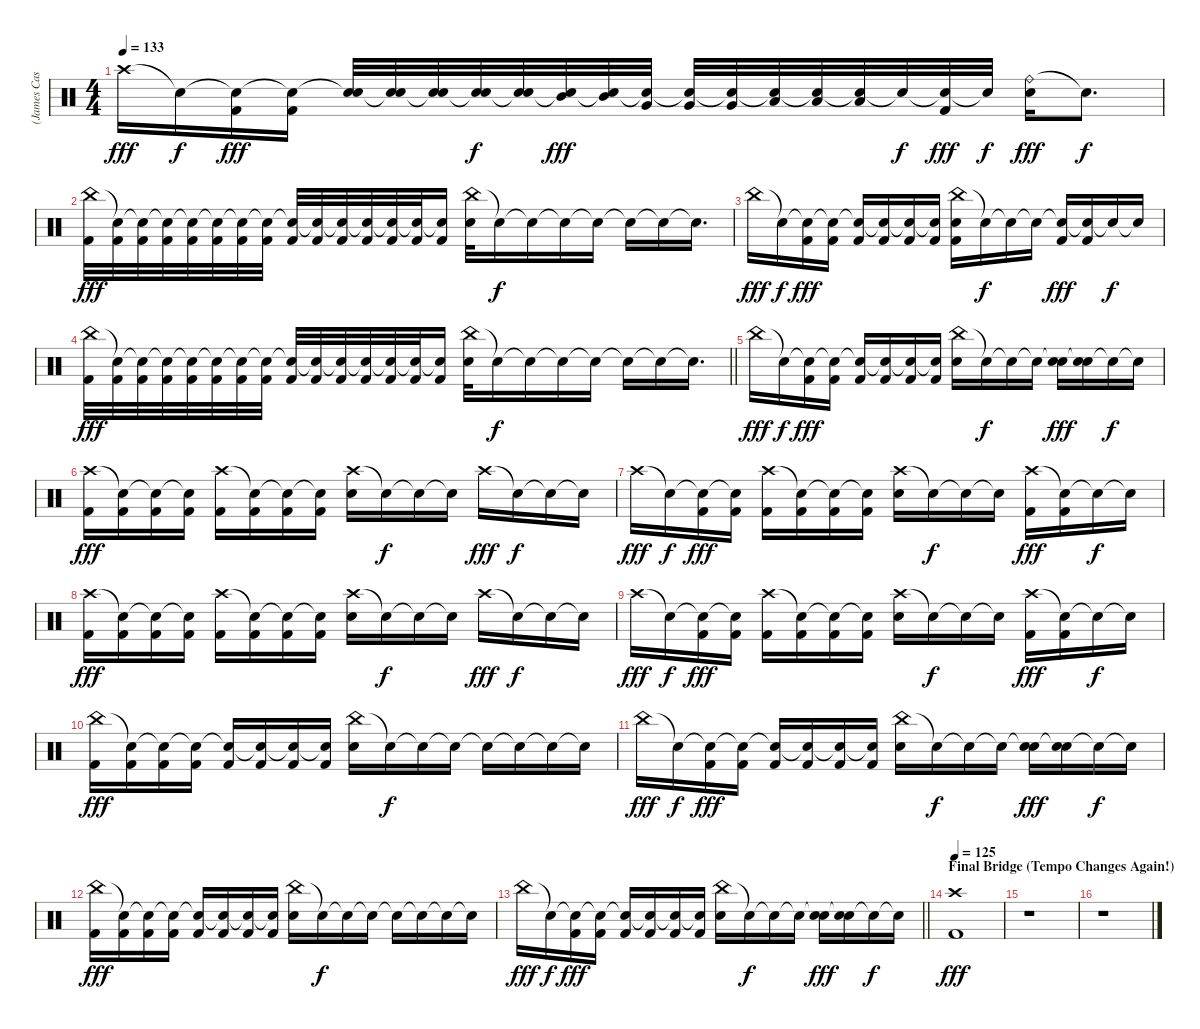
\track ("(James Cassells) Drums" "(James Cas") {instrument percussion}
\staff {score}
\articulation defaults
\ts (4 4)
\tempo 133
\clef neutral
\ks c "Crash high (hit)".16{dy fff} "Snare (hit)"{t}.16{dy f}
("Snare (hit)"{t} "Kick (hit) 2").16{dy fff} ("Snare (hit)"{t} "Kick (hit) 2").16 ("Snare (hit)"{t} "Electric Snare (hit)").32 ("Snare (hit)"{t} "Electric Snare (hit)").32 ("Snare (hit)"{t} "Electric Snare (hit)").32 ("Snare (hit)"{t} "Electric Snare (hit)").32{dy f} ("Snare (hit)"{t} "Electric Snare (hit)").32 ("Snare (hit)"{t} "Mid Tom (hit)").32{dy fff} ("Snare (hit)"{t} "Mid Tom (hit)").32 ("Snare (hit)"{t} "Very Low Tom (hit)").32 ("Snare (hit)"{t} "Very Low Tom (hit)").32 ("Snare (hit)"{t} "Very Low Tom (hit)").32 ("Snare (hit)"{t} "Low Floor Tom (hit)").32 ("Snare (hit)"{t} "Low Floor Tom (hit)").32 ("Snare (hit)"{t} "Low Floor Tom (hit)").32 "Snare (hit)"{t}.32{dy f} ("Snare (hit)"{t} "Kick (hit) 2").32{dy fff} "Snare (hit)"{t}.32{dy f} ("Ride (bell)" "Electric Snare (hit)").16{dy fff} "Snare (hit)"{t}.8{d dy f} |
("China (hit)" "Kick (hit) 2").32{dy fff} ("Snare (hit)"{t} "Kick (hit) 2").32 ("Snare (hit)"{t} "Kick (hit) 2").32 ("Snare (hit)"{t} "Kick (hit) 2").32 ("Snare (hit)"{t} "Kick (hit) 2").32 ("Snare (hit)"{t} "Kick (hit) 2").32 ("Snare (hit)"{t} "Kick (hit) 2").32 ("Snare (hit)"{t} "Kick (hit) 2").32 ("Snare (hit)"{t} "Kick (hit) 2").32 ("Snare (hit)"{t} "Kick (hit) 2").32 ("Snare (hit)"{t} "Kick (hit) 2").32 ("Snare (hit)"{t} "Kick (hit) 2").32 ("Snare (hit)"{t} "Kick (hit) 2").32 ("Snare (hit)"{t} "Kick (hit) 2").32 ("Snare (hit)"{t} "Kick (hit) 2").16 ("China (hit)" "Electric Snare (hit)").32 "Snare (hit)"{t}.16{dy f} "Snare (hit)"{t}.16 "Snare (hit)"{t}.16 "Snare (hit)"{t}.16 "Snare (hit)"{t}.16 "Snare (hit)"{t}.16 "Snare (hit)"{t}.16{d} |
"China (hit)".16{dy fff} "Snare (hit)"{t}.16{dy f} ("Snare (hit)"{t} "Kick (hit) 2").16{dy fff} ("Snare (hit)"{t} "Kick (hit) 2").16 ("Snare (hit)"{t} "Kick (hit) 2").16 ("Snare (hit)"{t} "Kick (hit) 2").16 ("Snare (hit)"{t} "Kick (hit) 2").16 ("Snare (hit)"{t} "Kick (hit) 2").16 ("China (hit)" "Electric Snare (hit)" "Kick (hit) 2").16 "Snare (hit)"{t}.16{dy f} "Snare (hit)"{t}.16 "Snare (hit)"{t}.16 ("Snare (hit)"{t} "Kick (hit) 2").16{dy fff} ("Snare (hit)"{t} "Kick (hit) 2").16 "Snare (hit)"{t}.16{dy f} "Snare (hit)"{t}.16 |
\barLineRight lightlight
("China (hit)" "Kick (hit) 2").32{dy fff} ("Snare (hit)"{t} "Kick (hit) 2").32 ("Snare (hit)"{t} "Kick (hit) 2").32 ("Snare (hit)"{t} "Kick (hit) 2").32 ("Snare (hit)"{t} "Kick (hit) 2").32 ("Snare (hit)"{t} "Kick (hit) 2").32 ("Snare (hit)"{t} "Kick (hit) 2").32 ("Snare (hit)"{t} "Kick (hit) 2").32 ("Snare (hit)"{t} "Kick (hit) 2").32 ("Snare (hit)"{t} "Kick (hit) 2").32 ("Snare (hit)"{t} "Kick (hit) 2").32 ("Snare (hit)"{t} "Kick (hit) 2").32 ("Snare (hit)"{t} "Kick (hit) 2").32 ("Snare (hit)"{t} "Kick (hit) 2").32 ("Snare (hit)"{t} "Kick (hit) 2").16 ("China (hit)" "Electric Snare (hit)").32 "Snare (hit)"{t}.16{dy f} "Snare (hit)"{t}.16 "Snare (hit)"{t}.16 "Snare (hit)"{t}.16 "Snare (hit)"{t}.16 "Snare (hit)"{t}.16 "Snare (hit)"{t}.16{d} |
"China (hit)".16{dy fff} "Snare (hit)"{t}.16{dy f} ("Snare (hit)"{t} "Kick (hit) 2").16{dy fff} ("Snare (hit)"{t} "Kick (hit) 2").16 ("Snare (hit)"{t} "Kick (hit) 2").16 ("Snare (hit)"{t} "Kick (hit) 2").16 ("Snare (hit)"{t} "Kick (hit) 2").16 ("Snare (hit)"{t} "Kick (hit) 2").16 ("China (hit)" "Electric Snare (hit)").16 "Snare (hit)"{t}.16{dy f} "Snare (hit)"{t}.16 "Snare (hit)"{t}.16 ("Snare (hit)"{t} "Electric Snare (hit)").16{dy fff} ("Snare (hit)"{t} "Electric Snare (hit)").16 "Snare (hit)"{t}.16{dy f} "Snare (hit)"{t}.16 |
("Crash high (hit)" "Kick (hit) 2").16{dy fff} ("Snare (hit)"{t} "Kick (hit) 2").16 ("Snare (hit)"{t} "Kick (hit) 2").16 ("Snare (hit)"{t} "Kick (hit) 2").16 ("Crash high (hit)" "Kick (hit) 2").16 ("Snare (hit)"{t} "Kick (hit) 2").16 ("Snare (hit)"{t} "Kick (hit) 2").16 ("Snare (hit)"{t} "Kick (hit) 2").16 ("Crash high (hit)" "Electric Snare (hit)").16 "Snare (hit)"{t}.16{dy f} "Snare (hit)"{t}.16 "Snare (hit)"{t}.16 "Crash high (hit)".16{dy fff} "Snare (hit)"{t}.16{dy f} "Snare (hit)"{t}.16 "Snare (hit)"{t}.16 |
"Crash high (hit)".16{dy fff} "Snare (hit)"{t}.16{dy f} ("Snare (hit)"{t} "Kick (hit) 2").16{dy fff} ("Snare (hit)"{t} "Kick (hit) 2").16 ("Crash high (hit)" "Kick (hit) 2").16 ("Snare (hit)"{t} "Kick (hit) 2").16 ("Snare (hit)"{t} "Kick (hit) 2").16 ("Snare (hit)"{t} "Kick (hit) 2").16 ("Crash high (hit)" "Electric Snare (hit)").16 "Snare (hit)"{t}.16{dy f} "Snare (hit)"{t}.16 "Snare (hit)"{t}.16 ("Crash high (hit)" "Kick (hit) 2").16{dy fff} ("Snare (hit)"{t} "Kick (hit) 2").16 "Snare (hit)"{t}.16{dy f} "Snare (hit)"{t}.16 |
("Crash high (hit)" "Kick (hit) 2").16{dy fff} ("Snare (hit)"{t} "Kick (hit) 2").16 ("Snare (hit)"{t} "Kick (hit) 2").16 ("Snare (hit)"{t} "Kick (hit) 2").16 ("Crash high (hit)" "Kick (hit) 2").16 ("Snare (hit)"{t} "Kick (hit) 2").16 ("Snare (hit)"{t} "Kick (hit) 2").16 ("Snare (hit)"{t} "Kick (hit) 2").16 ("Crash high (hit)" "Electric Snare (hit)").16 "Snare (hit)"{t}.16{dy f} "Snare (hit)"{t}.16 "Snare (hit)"{t}.16 "Crash high (hit)".16{dy fff} "Snare (hit)"{t}.16{dy f} "Snare (hit)"{t}.16 "Snare (hit)"{t}.16 |
"Crash high (hit)".16{dy fff} "Snare (hit)"{t}.16{dy f} ("Snare (hit)"{t} "Kick (hit) 2").16{dy fff} ("Snare (hit)"{t} "Kick (hit) 2").16 ("Crash high (hit)" "Kick (hit) 2").16 ("Snare (hit)"{t} "Kick (hit) 2").16 ("Snare (hit)"{t} "Kick (hit) 2").16 ("Snare (hit)"{t} "Kick (hit) 2").16 ("Crash high (hit)" "Electric Snare (hit)").16 "Snare (hit)"{t}.16{dy f} "Snare (hit)"{t}.16 "Snare (hit)"{t}.16 ("Crash high (hit)" "Kick (hit) 2").16{dy fff} ("Snare (hit)"{t} "Kick (hit) 2").16 "Snare (hit)"{t}.16{dy f} "Snare (hit)"{t}.16 |
("China (hit)" "Kick (hit) 2").16{dy fff} ("Snare (hit)"{t} "Kick (hit) 2").16 ("Snare (hit)"{t} "Kick (hit) 2").16 ("Snare (hit)"{t} "Kick (hit) 2").16 ("Snare (hit)"{t} "Kick (hit) 2").16 ("Snare (hit)"{t} "Kick (hit) 2").16 ("Snare (hit)"{t} "Kick (hit) 2").16 ("Snare (hit)"{t} "Kick (hit) 2").16 ("China (hit)" "Electric Snare (hit)").16 "Snare (hit)"{t}.16{dy f} "Snare (hit)"{t}.16 "Snare (hit)"{t}.16 "Snare (hit)"{t}.16 "Snare (hit)"{t}.16 "Snare (hit)"{t}.16 "Snare (hit)"{t}.16 |
"China (hit)".16{dy fff} "Snare (hit)"{t}.16{dy f} ("Snare (hit)"{t} "Kick (hit) 2").16{dy fff} ("Snare (hit)"{t} "Kick (hit) 2").16 ("Snare (hit)"{t} "Kick (hit) 2").16 ("Snare (hit)"{t} "Kick (hit) 2").16 ("Snare (hit)"{t} "Kick (hit) 2").16 ("Snare (hit)"{t} "Kick (hit) 2").16 ("China (hit)" "Electric Snare (hit)").16 "Snare (hit)"{t}.16{dy f} "Snare (hit)"{t}.16 "Snare (hit)"{t}.16 ("Snare (hit)"{t} "Electric Snare (hit)").16{dy fff} ("Snare (hit)"{t} "Electric Snare (hit)").16 "Snare (hit)"{t}.16{dy f} "Snare (hit)"{t}.16 |
("China (hit)" "Kick (hit) 2").16{dy fff} ("Snare (hit)"{t} "Kick (hit) 2").16 ("Snare (hit)"{t} "Kick (hit) 2").16 ("Snare (hit)"{t} "Kick (hit) 2").16 ("Snare (hit)"{t} "Kick (hit) 2").16 ("Snare (hit)"{t} "Kick (hit) 2").16 ("Snare (hit)"{t} "Kick (hit) 2").16 ("Snare (hit)"{t} "Kick (hit) 2").16 ("China (hit)" "Electric Snare (hit)").16 "Snare (hit)"{t}.16{dy f} "Snare (hit)"{t}.16 "Snare (hit)"{t}.16 "Snare (hit)"{t}.16 "Snare (hit)"{t}.16 "Snare (hit)"{t}.16 "Snare (hit)"{t}.16 |
\barLineRight lightlight "China (hit)".16{dy fff} "Snare (hit)"{t}.16{dy f}
("Snare (hit)"{t} "Kick (hit) 2").16{dy fff} ("Snare (hit)"{t} "Kick (hit) 2").16 ("Snare (hit)"{t} "Kick (hit) 2").16 ("Snare (hit)"{t} "Kick (hit) 2").16 ("Snare (hit)"{t} "Kick (hit) 2").16 ("Snare (hit)"{t} "Kick (hit) 2").16 ("China (hit)" "Electric Snare (hit)").16 "Snare (hit)"{t}.16{dy f} "Snare (hit)"{t}.16 "Snare (hit)"{t}.16 ("Snare (hit)"{t} "Electric Snare (hit)").16{dy fff} ("Snare (hit)"{t} "Electric Snare (hit)").16 "Snare (hit)"{t}.16{dy f} "Snare (hit)"{t}.16 |
\section ("" "Final Bridge (Tempo Changes Again!)")
\tempo 125
("Crash high (hit)" "Kick (hit) 2").1{dy fff} |
r.1 |
r.1
